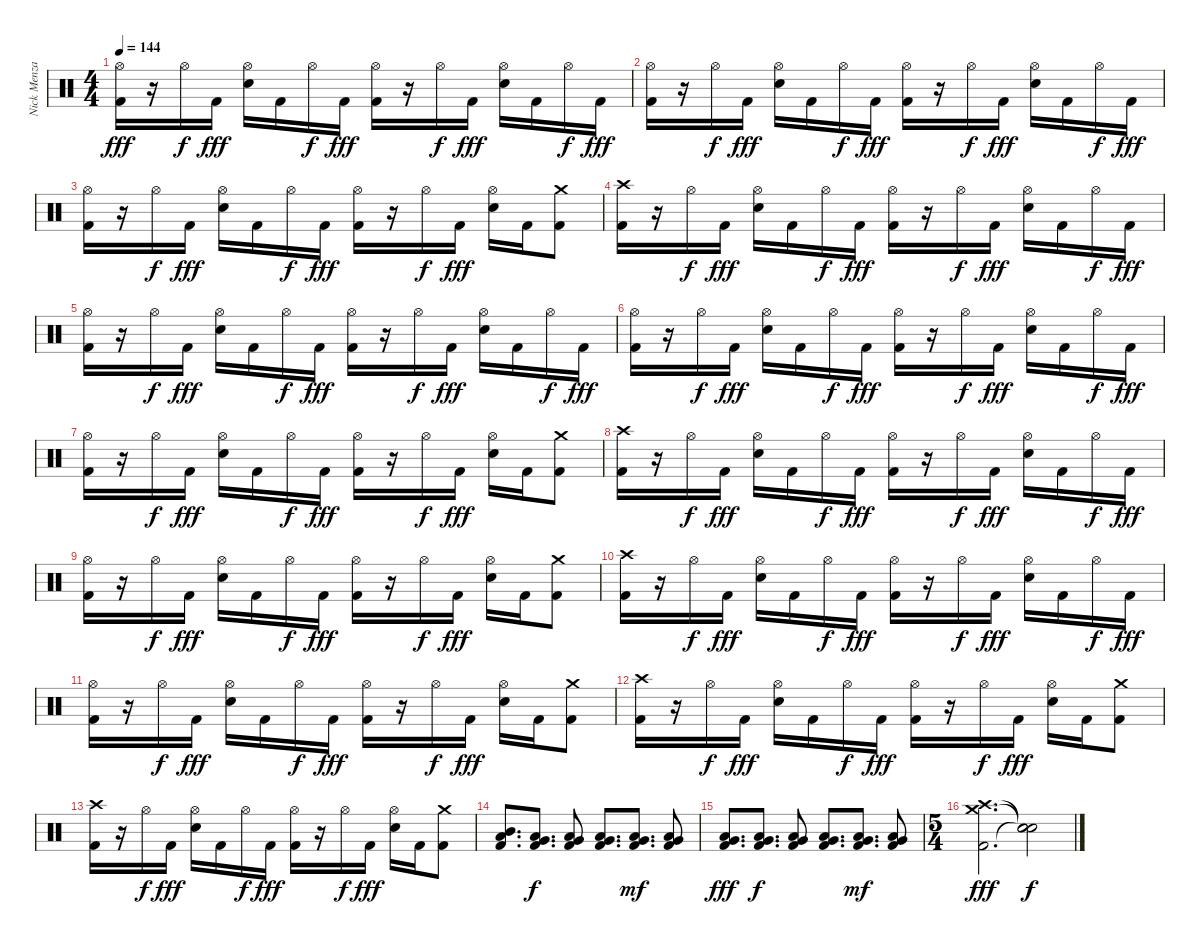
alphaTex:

\track ("Nick Menza" "Nick Menza") {instrument percussion}
\staff {score}
\articulation defaults
\ts (4 4)
\tempo 144
\clef neutral
\ks c
("Kick (hit) 2" "Hi-Hat (open)").16{dy fff} r.16 "Hi-Hat (open)".16{dy f} "Kick (hit) 2".16{dy fff} ("Electric Snare (hit)" "Hi-Hat (open)").16 "Kick (hit) 2".16 "Hi-Hat (open)".16{dy f} "Kick (hit) 2".16{dy fff} ("Kick (hit) 2" "Hi-Hat (open)").16 r.16 "Hi-Hat (open)".16{dy f} "Kick (hit) 2".16{dy fff} ("Electric Snare (hit)" "Hi-Hat (open)").16 "Kick (hit) 2".16 "Hi-Hat (open)".16{dy f} "Kick (hit) 2".16{dy fff} |
("Kick (hit) 2" "Hi-Hat (open)").16 r.16 "Hi-Hat (open)".16{dy f} "Kick (hit) 2".16{dy fff} ("Electric Snare (hit)" "Hi-Hat (open)").16 "Kick (hit) 2".16 "Hi-Hat (open)".16{dy f} "Kick (hit) 2".16{dy fff} ("Kick (hit) 2" "Hi-Hat (open)").16 r.16 "Hi-Hat (open)".16{dy f} "Kick (hit) 2".16{dy fff} ("Electric Snare (hit)" "Hi-Hat (open)").16 "Kick (hit) 2".16 "Hi-Hat (open)".16{dy f} "Kick (hit) 2".16{dy fff} |
("Kick (hit) 2" "Hi-Hat (open)").16 r.16 "Hi-Hat (open)".16{dy f} "Kick (hit) 2".16{dy fff} ("Electric Snare (hit)" "Hi-Hat (open)").16 "Kick (hit) 2".16 "Hi-Hat (open)".16{dy f} "Kick (hit) 2".16{dy fff} ("Kick (hit) 2" "Hi-Hat (open)").16 r.16 "Hi-Hat (open)".16{dy f} "Kick (hit) 2".16{dy fff} ("Electric Snare (hit)" "Hi-Hat (open)").16 "Kick (hit) 2".16 ("Kick (hit) 2" "Crash medium (hit)").8 |
("Kick (hit) 2" "Crash high (hit)").16 r.16 "Hi-Hat (open)".16{dy f} "Kick (hit) 2".16{dy fff} ("Electric Snare (hit)" "Hi-Hat (open)").16 "Kick (hit) 2".16 "Hi-Hat (open)".16{dy f} "Kick (hit) 2".16{dy fff} ("Kick (hit) 2" "Hi-Hat (open)").16 r.16 "Hi-Hat (open)".16{dy f} "Kick (hit) 2".16{dy fff} ("Electric Snare (hit)" "Hi-Hat (open)").16 "Kick (hit) 2".16 "Hi-Hat (open)".16{dy f} "Kick (hit) 2".16{dy fff} |
("Kick (hit) 2" "Hi-Hat (open)").16 r.16 "Hi-Hat (open)".16{dy f} "Kick (hit) 2".16{dy fff} ("Electric Snare (hit)" "Hi-Hat (open)").16 "Kick (hit) 2".16 "Hi-Hat (open)".16{dy f} "Kick (hit) 2".16{dy fff} ("Kick (hit) 2" "Hi-Hat (open)").16 r.16 "Hi-Hat (open)".16{dy f} "Kick (hit) 2".16{dy fff} ("Electric Snare (hit)" "Hi-Hat (open)").16 "Kick (hit) 2".16 "Hi-Hat (open)".16{dy f} "Kick (hit) 2".16{dy fff} |
("Kick (hit) 2" "Hi-Hat (open)").16 r.16 "Hi-Hat (open)".16{dy f} "Kick (hit) 2".16{dy fff} ("Electric Snare (hit)" "Hi-Hat (open)").16 "Kick (hit) 2".16 "Hi-Hat (open)".16{dy f} "Kick (hit) 2".16{dy fff} ("Kick (hit) 2" "Hi-Hat (open)").16 r.16 "Hi-Hat (open)".16{dy f} "Kick (hit) 2".16{dy fff} ("Electric Snare (hit)" "Hi-Hat (open)").16 "Kick (hit) 2".16 "Hi-Hat (open)".16{dy f} "Kick (hit) 2".16{dy fff} |
("Kick (hit) 2" "Hi-Hat (open)").16 r.16 "Hi-Hat (open)".16{dy f} "Kick (hit) 2".16{dy fff} ("Electric Snare (hit)" "Hi-Hat (open)").16 "Kick (hit) 2".16 "Hi-Hat (open)".16{dy f} "Kick (hit) 2".16{dy fff} ("Kick (hit) 2" "Hi-Hat (open)").16 r.16 "Hi-Hat (open)".16{dy f} "Kick (hit) 2".16{dy fff} ("Electric Snare (hit)" "Hi-Hat (open)").16 "Kick (hit) 2".16 ("Kick (hit) 2" "Crash medium (hit)").8 |
("Kick (hit) 2" "Crash high (hit)").16 r.16 "Hi-Hat (open)".16{dy f} "Kick (hit) 2".16{dy fff} ("Electric Snare (hit)" "Hi-Hat (open)").16 "Kick (hit) 2".16 "Hi-Hat (open)".16{dy f} "Kick (hit) 2".16{dy fff} ("Kick (hit) 2" "Hi-Hat (open)").16 r.16 "Hi-Hat (open)".16{dy f} "Kick (hit) 2".16{dy fff} ("Electric Snare (hit)" "Hi-Hat (open)").16 "Kick (hit) 2".16 "Hi-Hat (open)".16{dy f} "Kick (hit) 2".16{dy fff} |
("Kick (hit) 2" "Hi-Hat (open)").16 r.16 "Hi-Hat (open)".16{dy f} "Kick (hit) 2".16{dy fff} ("Electric Snare (hit)" "Hi-Hat (open)").16 "Kick (hit) 2".16 "Hi-Hat (open)".16{dy f} "Kick (hit) 2".16{dy fff} ("Kick (hit) 2" "Hi-Hat (open)").16 r.16 "Hi-Hat (open)".16{dy f} "Kick (hit) 2".16{dy fff} ("Electric Snare (hit)" "Hi-Hat (open)").16 "Kick (hit) 2".16 ("Kick (hit) 2" "Crash medium (hit)").8 |
("Kick (hit) 2" "Crash high (hit)").16 r.16 "Hi-Hat (open)".16{dy f} "Kick (hit) 2".16{dy fff} ("Electric Snare (hit)" "Hi-Hat (open)").16 "Kick (hit) 2".16 "Hi-Hat (open)".16{dy f} "Kick (hit) 2".16{dy fff} ("Kick (hit) 2" "Hi-Hat (open)").16 r.16 "Hi-Hat (open)".16{dy f} "Kick (hit) 2".16{dy fff} ("Electric Snare (hit)" "Hi-Hat (open)").16 "Kick (hit) 2".16 "Hi-Hat (open)".16{dy f} "Kick (hit) 2".16{dy fff} |
("Kick (hit) 2" "Hi-Hat (open)").16 r.16 "Hi-Hat (open)".16{dy f} "Kick (hit) 2".16{dy fff} ("Electric Snare (hit)" "Hi-Hat (open)").16 "Kick (hit) 2".16 "Hi-Hat (open)".16{dy f} "Kick (hit) 2".16{dy fff} ("Kick (hit) 2" "Hi-Hat (open)").16 r.16 "Hi-Hat (open)".16{dy f} "Kick (hit) 2".16{dy fff} ("Electric Snare (hit)" "Hi-Hat (open)").16 "Kick (hit) 2".16 ("Kick (hit) 2" "Crash medium (hit)").8 |
("Kick (hit) 2" "Crash high (hit)").16 r.16 "Hi-Hat (open)".16{dy f} "Kick (hit) 2".16{dy fff} ("Electric Snare (hit)" "Hi-Hat (open)").16 "Kick (hit) 2".16 "Hi-Hat (open)".16{dy f} "Kick (hit) 2".16{dy fff} ("Kick (hit) 2" "Hi-Hat (open)").16 r.16 "Hi-Hat (open)".16{dy f} "Kick (hit) 2".16{dy fff} ("Electric Snare (hit)" "Hi-Hat (open)").16 "Kick (hit) 2".16 ("Kick (hit) 2" "Crash medium (hit)").8 |
("Kick (hit) 2" "Crash high (hit)").16 r.16 "Hi-Hat (open)".16{dy f} "Kick (hit) 2".16{dy fff} ("Electric Snare (hit)" "Hi-Hat (open)").16 "Kick (hit) 2".16 "Hi-Hat (open)".16{dy f} "Kick (hit) 2".16{dy fff} ("Kick (hit) 2" "Hi-Hat (open)").16 r.16 "Hi-Hat (open)".16{dy f} "Kick (hit) 2".16{dy fff} ("Electric Snare (hit)" "Hi-Hat (open)").16 "Kick (hit) 2".16 ("Kick (hit) 2" "Crash medium (hit)").8 |
("Kick (hit) 2" "Mid Tom (hit)" "Low Tom (hit)").8{d} ("Kick (hit) 2" "Low Tom (hit)" "Very Low Tom (hit)").8{d dy f} ("Kick (hit) 2" "Very Low Tom (hit)" "Low Floor Tom (hit)").8 ("Kick (hit) 2" "Low Tom (hit)" "Very Low Tom (hit)").8{d} ("Kick (hit) 2" "Very Low Tom (hit)" "Low Floor Tom (hit)").8{d dy mf} ("Kick (hit) 2" "Very Low Tom (hit)" "Low Floor Tom (hit)").8 |
("Kick (hit) 2" "Very Low Tom (hit)" "Low Floor Tom (hit)").8{d dy fff} ("Kick (hit) 2" "Very Low Tom (hit)" "Low Floor Tom (hit)").8{d dy f} ("Kick (hit) 2" "Very Low Tom (hit)" "Low Floor Tom (hit)").8 ("Kick (hit) 2" "Very Low Tom (hit)" "Low Floor Tom (hit)").8{d} ("Kick (hit) 2" "Very Low Tom (hit)" "Low Floor Tom (hit)").8{d dy mf} ("Kick (hit) 2" "Very Low Tom (hit)" "Low Floor Tom (hit)").8 |
\ts (5 4)
("Kick (hit) 2" "Crash high (hit)" "Crash medium (hit)").2{d dy fff} ("Snare (hit)"{t} "Snare (hit)"{t} "Snare (hit)"{t}).2{dy f}
